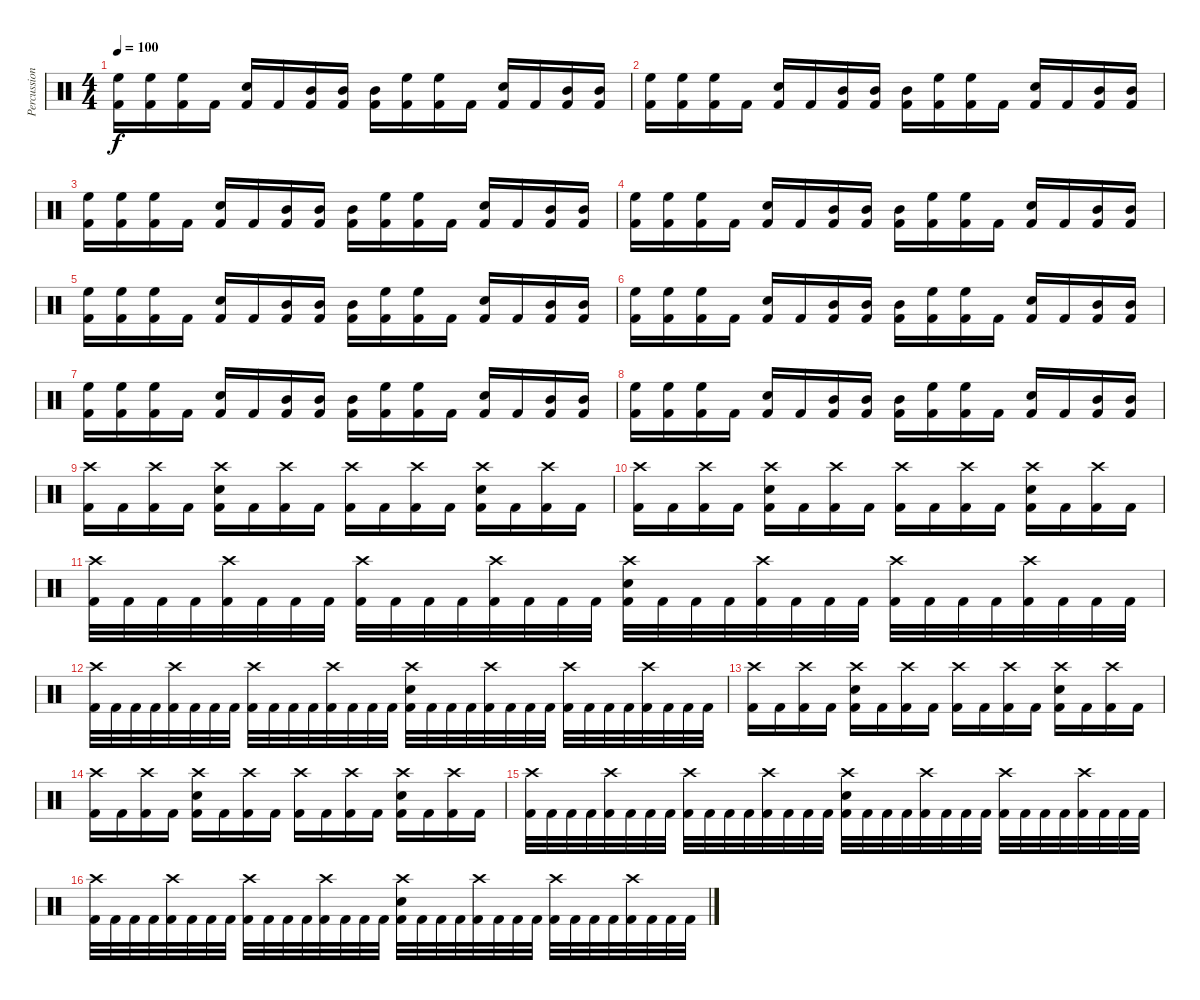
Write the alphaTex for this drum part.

\track ("Percussion" "Percussion") {instrument percussion}
\staff {score}
\articulation defaults
\ts (4 4)
\tempo 100
\clef neutral
\ks c
("High Floor Tom (hit)" "Kick (hit) 2").16{dy f} ("High Floor Tom (hit)" "Kick (hit) 2").16 ("High Floor Tom (hit)" "Kick (hit) 2").16 "Kick (hit) 2".16 ("Electric Snare (hit)" "Kick (hit) 2").16 "Kick (hit) 2".16 ("Mid Tom (hit)" "Kick (hit) 2").16 ("Mid Tom (hit)" "Kick (hit) 2").16 ("Mid Tom (hit)" "Kick (hit) 2").16 ("High Floor Tom (hit)" "Kick (hit) 2").16 ("High Floor Tom (hit)" "Kick (hit) 2").16 "Kick (hit) 2".16 ("Electric Snare (hit)" "Kick (hit) 2").16 "Kick (hit) 2".16 ("Mid Tom (hit)" "Kick (hit) 2").16 ("Mid Tom (hit)" "Kick (hit) 2").16 |
("High Floor Tom (hit)" "Kick (hit) 2").16 ("High Floor Tom (hit)" "Kick (hit) 2").16 ("High Floor Tom (hit)" "Kick (hit) 2").16 "Kick (hit) 2".16 ("Electric Snare (hit)" "Kick (hit) 2").16 "Kick (hit) 2".16 ("Mid Tom (hit)" "Kick (hit) 2").16 ("Mid Tom (hit)" "Kick (hit) 2").16 ("Mid Tom (hit)" "Kick (hit) 2").16 ("High Floor Tom (hit)" "Kick (hit) 2").16 ("High Floor Tom (hit)" "Kick (hit) 2").16 "Kick (hit) 2".16 ("Electric Snare (hit)" "Kick (hit) 2").16 "Kick (hit) 2".16 ("Mid Tom (hit)" "Kick (hit) 2").16 ("Mid Tom (hit)" "Kick (hit) 2").16 |
("High Floor Tom (hit)" "Kick (hit) 2").16 ("High Floor Tom (hit)" "Kick (hit) 2").16 ("High Floor Tom (hit)" "Kick (hit) 2").16 "Kick (hit) 2".16 ("Electric Snare (hit)" "Kick (hit) 2").16 "Kick (hit) 2".16 ("Mid Tom (hit)" "Kick (hit) 2").16 ("Mid Tom (hit)" "Kick (hit) 2").16 ("Mid Tom (hit)" "Kick (hit) 2").16 ("High Floor Tom (hit)" "Kick (hit) 2").16 ("High Floor Tom (hit)" "Kick (hit) 2").16 "Kick (hit) 2".16 ("Electric Snare (hit)" "Kick (hit) 2").16 "Kick (hit) 2".16 ("Mid Tom (hit)" "Kick (hit) 2").16 ("Mid Tom (hit)" "Kick (hit) 2").16 |
("High Floor Tom (hit)" "Kick (hit) 2").16 ("High Floor Tom (hit)" "Kick (hit) 2").16 ("High Floor Tom (hit)" "Kick (hit) 2").16 "Kick (hit) 2".16 ("Electric Snare (hit)" "Kick (hit) 2").16 "Kick (hit) 2".16 ("Mid Tom (hit)" "Kick (hit) 2").16 ("Mid Tom (hit)" "Kick (hit) 2").16 ("Mid Tom (hit)" "Kick (hit) 2").16 ("High Floor Tom (hit)" "Kick (hit) 2").16 ("High Floor Tom (hit)" "Kick (hit) 2").16 "Kick (hit) 2".16 ("Electric Snare (hit)" "Kick (hit) 2").16 "Kick (hit) 2".16 ("Mid Tom (hit)" "Kick (hit) 2").16 ("Mid Tom (hit)" "Kick (hit) 2").16 |
("High Floor Tom (hit)" "Kick (hit) 2").16 ("High Floor Tom (hit)" "Kick (hit) 2").16 ("High Floor Tom (hit)" "Kick (hit) 2").16 "Kick (hit) 2".16 ("Electric Snare (hit)" "Kick (hit) 2").16 "Kick (hit) 2".16 ("Mid Tom (hit)" "Kick (hit) 2").16 ("Mid Tom (hit)" "Kick (hit) 2").16 ("Mid Tom (hit)" "Kick (hit) 2").16 ("High Floor Tom (hit)" "Kick (hit) 2").16 ("High Floor Tom (hit)" "Kick (hit) 2").16 "Kick (hit) 2".16 ("Electric Snare (hit)" "Kick (hit) 2").16 "Kick (hit) 2".16 ("Mid Tom (hit)" "Kick (hit) 2").16 ("Mid Tom (hit)" "Kick (hit) 2").16 |
("High Floor Tom (hit)" "Kick (hit) 2").16 ("High Floor Tom (hit)" "Kick (hit) 2").16 ("High Floor Tom (hit)" "Kick (hit) 2").16 "Kick (hit) 2".16 ("Electric Snare (hit)" "Kick (hit) 2").16 "Kick (hit) 2".16 ("Mid Tom (hit)" "Kick (hit) 2").16 ("Mid Tom (hit)" "Kick (hit) 2").16 ("Mid Tom (hit)" "Kick (hit) 2").16 ("High Floor Tom (hit)" "Kick (hit) 2").16 ("High Floor Tom (hit)" "Kick (hit) 2").16 "Kick (hit) 2".16 ("Electric Snare (hit)" "Kick (hit) 2").16 "Kick (hit) 2".16 ("Mid Tom (hit)" "Kick (hit) 2").16 ("Mid Tom (hit)" "Kick (hit) 2").16 |
("High Floor Tom (hit)" "Kick (hit) 2").16 ("High Floor Tom (hit)" "Kick (hit) 2").16 ("High Floor Tom (hit)" "Kick (hit) 2").16 "Kick (hit) 2".16 ("Electric Snare (hit)" "Kick (hit) 2").16 "Kick (hit) 2".16 ("Mid Tom (hit)" "Kick (hit) 2").16 ("Mid Tom (hit)" "Kick (hit) 2").16 ("Mid Tom (hit)" "Kick (hit) 2").16 ("High Floor Tom (hit)" "Kick (hit) 2").16 ("High Floor Tom (hit)" "Kick (hit) 2").16 "Kick (hit) 2".16 ("Electric Snare (hit)" "Kick (hit) 2").16 "Kick (hit) 2".16 ("Mid Tom (hit)" "Kick (hit) 2").16 ("Mid Tom (hit)" "Kick (hit) 2").16 |
("High Floor Tom (hit)" "Kick (hit) 2").16 ("High Floor Tom (hit)" "Kick (hit) 2").16 ("High Floor Tom (hit)" "Kick (hit) 2").16 "Kick (hit) 2".16 ("Electric Snare (hit)" "Kick (hit) 2").16 "Kick (hit) 2".16 ("Mid Tom (hit)" "Kick (hit) 2").16 ("Mid Tom (hit)" "Kick (hit) 2").16 ("Mid Tom (hit)" "Kick (hit) 2").16 ("High Floor Tom (hit)" "Kick (hit) 2").16 ("High Floor Tom (hit)" "Kick (hit) 2").16 "Kick (hit) 2".16 ("Electric Snare (hit)" "Kick (hit) 2").16 "Kick (hit) 2".16 ("Mid Tom (hit)" "Kick (hit) 2").16 ("Mid Tom (hit)" "Kick (hit) 2").16 |
("Crash high (hit)" "Kick (hit) 2").16 "Kick (hit) 2".16 ("Crash high (hit)" "Kick (hit) 2").16 "Kick (hit) 2".16 ("Crash high (hit)" "Electric Snare (hit)" "Kick (hit) 2").16 "Kick (hit) 2".16 ("Crash high (hit)" "Kick (hit) 2").16 "Kick (hit) 2".16 ("Crash high (hit)" "Kick (hit) 2").16 "Kick (hit) 2".16 ("Crash high (hit)" "Kick (hit) 2").16 "Kick (hit) 2".16 ("Crash high (hit)" "Electric Snare (hit)" "Kick (hit) 2").16 "Kick (hit) 2".16 ("Crash high (hit)" "Kick (hit) 2").16 "Kick (hit) 2".16 |
("Crash high (hit)" "Kick (hit) 2").16 "Kick (hit) 2".16 ("Crash high (hit)" "Kick (hit) 2").16 "Kick (hit) 2".16 ("Crash high (hit)" "Electric Snare (hit)" "Kick (hit) 2").16 "Kick (hit) 2".16 ("Crash high (hit)" "Kick (hit) 2").16 "Kick (hit) 2".16 ("Crash high (hit)" "Kick (hit) 2").16 "Kick (hit) 2".16 ("Crash high (hit)" "Kick (hit) 2").16 "Kick (hit) 2".16 ("Crash high (hit)" "Electric Snare (hit)" "Kick (hit) 2").16 "Kick (hit) 2".16 ("Crash high (hit)" "Kick (hit) 2").16 "Kick (hit) 2".16 |
("Crash high (hit)" "Kick (hit) 2").32 "Kick (hit) 2".32 "Kick (hit) 2".32 "Kick (hit) 2".32 ("Crash high (hit)" "Kick (hit) 2").32 "Kick (hit) 2".32 "Kick (hit) 2".32 "Kick (hit) 2".32 ("Crash high (hit)" "Kick (hit) 2").32 "Kick (hit) 2".32 "Kick (hit) 2".32 "Kick (hit) 2".32 ("Crash high (hit)" "Kick (hit) 2").32 "Kick (hit) 2".32 "Kick (hit) 2".32 "Kick (hit) 2".32 ("Crash high (hit)" "Electric Snare (hit)" "Kick (hit) 2").32 "Kick (hit) 2".32 "Kick (hit) 2".32 "Kick (hit) 2".32 ("Crash high (hit)" "Kick (hit) 2").32 "Kick (hit) 2".32 "Kick (hit) 2".32 "Kick (hit) 2".32 ("Crash high (hit)" "Kick (hit) 2").32 "Kick (hit) 2".32 "Kick (hit) 2".32 "Kick (hit) 2".32 ("Crash high (hit)" "Kick (hit) 2").32 "Kick (hit) 2".32 "Kick (hit) 2".32 "Kick (hit) 2".32 |
("Crash high (hit)" "Kick (hit) 2").32 "Kick (hit) 2".32 "Kick (hit) 2".32 "Kick (hit) 2".32 ("Crash high (hit)" "Kick (hit) 2").32 "Kick (hit) 2".32 "Kick (hit) 2".32 "Kick (hit) 2".32 ("Crash high (hit)" "Kick (hit) 2").32 "Kick (hit) 2".32 "Kick (hit) 2".32 "Kick (hit) 2".32 ("Crash high (hit)" "Kick (hit) 2").32 "Kick (hit) 2".32 "Kick (hit) 2".32 "Kick (hit) 2".32 ("Crash high (hit)" "Electric Snare (hit)" "Kick (hit) 2").32 "Kick (hit) 2".32 "Kick (hit) 2".32 "Kick (hit) 2".32 ("Crash high (hit)" "Kick (hit) 2").32 "Kick (hit) 2".32 "Kick (hit) 2".32 "Kick (hit) 2".32 ("Crash high (hit)" "Kick (hit) 2").32 "Kick (hit) 2".32 "Kick (hit) 2".32 "Kick (hit) 2".32 ("Crash high (hit)" "Kick (hit) 2").32 "Kick (hit) 2".32 "Kick (hit) 2".32 "Kick (hit) 2".32 |
("Crash high (hit)" "Kick (hit) 2").16 "Kick (hit) 2".16 ("Crash high (hit)" "Kick (hit) 2").16 "Kick (hit) 2".16 ("Crash high (hit)" "Electric Snare (hit)" "Kick (hit) 2").16 "Kick (hit) 2".16 ("Crash high (hit)" "Kick (hit) 2").16 "Kick (hit) 2".16 ("Crash high (hit)" "Kick (hit) 2").16 "Kick (hit) 2".16 ("Crash high (hit)" "Kick (hit) 2").16 "Kick (hit) 2".16 ("Crash high (hit)" "Electric Snare (hit)" "Kick (hit) 2").16 "Kick (hit) 2".16 ("Crash high (hit)" "Kick (hit) 2").16 "Kick (hit) 2".16 |
("Crash high (hit)" "Kick (hit) 2").16 "Kick (hit) 2".16 ("Crash high (hit)" "Kick (hit) 2").16 "Kick (hit) 2".16 ("Crash high (hit)" "Electric Snare (hit)" "Kick (hit) 2").16 "Kick (hit) 2".16 ("Crash high (hit)" "Kick (hit) 2").16 "Kick (hit) 2".16 ("Crash high (hit)" "Kick (hit) 2").16 "Kick (hit) 2".16 ("Crash high (hit)" "Kick (hit) 2").16 "Kick (hit) 2".16 ("Crash high (hit)" "Electric Snare (hit)" "Kick (hit) 2").16 "Kick (hit) 2".16 ("Crash high (hit)" "Kick (hit) 2").16 "Kick (hit) 2".16 |
("Crash high (hit)" "Kick (hit) 2").32 "Kick (hit) 2".32 "Kick (hit) 2".32 "Kick (hit) 2".32 ("Crash high (hit)" "Kick (hit) 2").32 "Kick (hit) 2".32 "Kick (hit) 2".32 "Kick (hit) 2".32 ("Crash high (hit)" "Kick (hit) 2").32 "Kick (hit) 2".32 "Kick (hit) 2".32 "Kick (hit) 2".32 ("Crash high (hit)" "Kick (hit) 2").32 "Kick (hit) 2".32 "Kick (hit) 2".32 "Kick (hit) 2".32 ("Crash high (hit)" "Electric Snare (hit)" "Kick (hit) 2").32 "Kick (hit) 2".32 "Kick (hit) 2".32 "Kick (hit) 2".32 ("Crash high (hit)" "Kick (hit) 2").32 "Kick (hit) 2".32 "Kick (hit) 2".32 "Kick (hit) 2".32 ("Crash high (hit)" "Kick (hit) 2").32 "Kick (hit) 2".32 "Kick (hit) 2".32 "Kick (hit) 2".32 ("Crash high (hit)" "Kick (hit) 2").32 "Kick (hit) 2".32 "Kick (hit) 2".32 "Kick (hit) 2".32 |
("Crash high (hit)" "Kick (hit) 2").32 "Kick (hit) 2".32 "Kick (hit) 2".32 "Kick (hit) 2".32 ("Crash high (hit)" "Kick (hit) 2").32 "Kick (hit) 2".32 "Kick (hit) 2".32 "Kick (hit) 2".32 ("Crash high (hit)" "Kick (hit) 2").32 "Kick (hit) 2".32 "Kick (hit) 2".32 "Kick (hit) 2".32 ("Crash high (hit)" "Kick (hit) 2").32 "Kick (hit) 2".32 "Kick (hit) 2".32 "Kick (hit) 2".32 ("Crash high (hit)" "Electric Snare (hit)" "Kick (hit) 2").32 "Kick (hit) 2".32 "Kick (hit) 2".32 "Kick (hit) 2".32 ("Crash high (hit)" "Kick (hit) 2").32 "Kick (hit) 2".32 "Kick (hit) 2".32 "Kick (hit) 2".32 ("Crash high (hit)" "Kick (hit) 2").32 "Kick (hit) 2".32 "Kick (hit) 2".32 "Kick (hit) 2".32 ("Crash high (hit)" "Kick (hit) 2").32 "Kick (hit) 2".32 "Kick (hit) 2".32 "Kick (hit) 2".32
